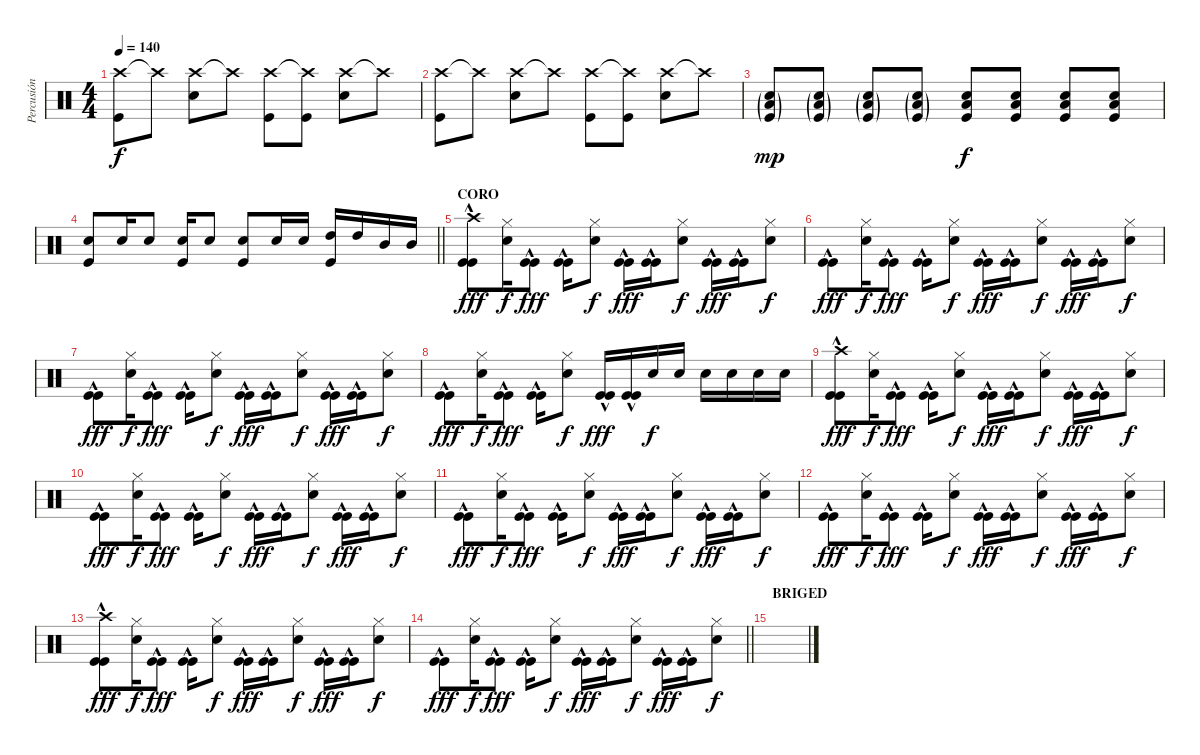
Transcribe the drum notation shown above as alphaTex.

\track ("Percusión" "Percusión") {instrument percussion}
\staff {score}
\articulation defaults
\ts (4 4)
\tempo 140
\clef neutral
\ks c
("Crash high (hit)" "Kick (hit)").8{dy f} "Crash high (hit)"{t}.8 ("Crash high (hit)" "Snare (hit) 2").8 "Crash high (hit)"{t}.8 ("Kick (hit)" "Crash high (hit)").8 ("Kick (hit)" "Crash high (hit)"{t}).8 ("Crash high (hit)" "Snare (hit) 2").8 "Crash high (hit)"{t}.8 |
("Crash high (hit)" "Kick (hit)").8 "Crash high (hit)"{t}.8 ("Crash high (hit)" "Snare (hit) 2").8 "Crash high (hit)"{t}.8 ("Kick (hit)" "Crash high (hit)").8 ("Kick (hit)" "Crash high (hit)"{t}).8 ("Crash high (hit)" "Snare (hit) 2").8 "Crash high (hit)"{t}.8 |
("Low Floor Tom (hit)"{g} "Snare (hit) 2"{g} "Kick (hit)"{g}).8{dy mp} ("Low Floor Tom (hit)"{g} "Snare (hit) 2"{g} "Kick (hit)"{g}).8 ("Kick (hit)"{g} "Low Floor Tom (hit)"{g} "Snare (hit) 2"{g}).8 ("Kick (hit)"{g} "Low Floor Tom (hit)"{g} "Snare (hit) 2"{g}).8 ("Low Floor Tom (hit)" "Snare (hit) 2" "Kick (hit)").8{dy f} ("Low Floor Tom (hit)" "Snare (hit) 2" "Kick (hit)").8 ("Kick (hit)" "Low Floor Tom (hit)" "Snare (hit) 2").8 ("Kick (hit)" "Low Floor Tom (hit)" "Snare (hit) 2").8 |
\barLineRight lightlight
("Snare (hit) 2" "Kick (hit)").8 "Snare (hit) 2".16 "Snare (hit) 2".8 ("Snare (hit) 2" "Kick (hit)").16 "Snare (hit) 2".8 ("Snare (hit) 2" "Kick (hit)").8 "Snare (hit) 2".16 "Snare (hit) 2".16 ("High Tom (hit)" "Kick (hit)").16 "High Tom (hit)".16 "Mid Tom (hit)".16 "Mid Tom (hit)".16 |
\section ("" "CORO")
("Crash high (hit)" "Kick (hit)"{hac} "Kick (hit)").8{dy fff} ("Hi-Hat (closed)" "Snare (hit) 2").16{dy f} ("Kick (hit)"{hac} "Kick (hit)").8{dy fff} ("Kick (hit)" "Kick (hit)"{hac}).16 ("Hi-Hat (closed)" "Snare (hit) 2").8{dy f} ("Kick (hit)"{hac} "Kick (hit)").16{dy fff} ("Kick (hit)"{hac} "Kick (hit)").16 ("Hi-Hat (closed)" "Snare (hit) 2").8{dy f} ("Kick (hit)"{hac} "Kick (hit)").16{dy fff} ("Kick (hit)"{hac} "Kick (hit)").16 ("Hi-Hat (closed)" "Snare (hit) 2").8{dy f} |
("Kick (hit)"{hac} "Kick (hit)").8{dy fff} ("Hi-Hat (closed)" "Snare (hit) 2").16{dy f} ("Kick (hit)"{hac} "Kick (hit)").8{dy fff} ("Kick (hit)" "Kick (hit)"{hac}).16 ("Hi-Hat (closed)" "Snare (hit) 2").8{dy f} ("Kick (hit)"{hac} "Kick (hit)").16{dy fff} ("Kick (hit)"{hac} "Kick (hit)").16 ("Hi-Hat (closed)" "Snare (hit) 2").8{dy f} ("Kick (hit)"{hac} "Kick (hit)").16{dy fff} ("Kick (hit)"{hac} "Kick (hit)").16 ("Hi-Hat (closed)" "Snare (hit) 2").8{dy f} |
("Kick (hit)"{hac} "Kick (hit)").8{dy fff} ("Hi-Hat (closed)" "Snare (hit) 2").16{dy f} ("Kick (hit)"{hac} "Kick (hit)").8{dy fff} ("Kick (hit)" "Kick (hit)"{hac}).16 ("Hi-Hat (closed)" "Snare (hit) 2").8{dy f} ("Kick (hit)"{hac} "Kick (hit)").16{dy fff} ("Kick (hit)"{hac} "Kick (hit)").16 ("Hi-Hat (closed)" "Snare (hit) 2").8{dy f} ("Kick (hit)"{hac} "Kick (hit)").16{dy fff} ("Kick (hit)"{hac} "Kick (hit)").16 ("Hi-Hat (closed)" "Snare (hit) 2").8{dy f} |
("Kick (hit)"{hac} "Kick (hit)").8{dy fff} ("Hi-Hat (closed)" "Snare (hit) 2").16{dy f} ("Kick (hit)"{hac} "Kick (hit)").8{dy fff} ("Kick (hit)" "Kick (hit)"{hac}).16 ("Hi-Hat (closed)" "Snare (hit) 2").8{dy f} ("Kick (hit)"{hac} "Kick (hit)").16{dy fff} ("Kick (hit)"{hac} "Kick (hit)").16 "Snare (hit) 2".16{dy f} "Snare (hit) 2".16 "Snare (hit) 2".16 "Snare (hit) 2".16 "Snare (hit) 2".16 "Snare (hit) 2".16 |
("Crash high (hit)" "Kick (hit)"{hac} "Kick (hit)").8{dy fff} ("Hi-Hat (closed)" "Snare (hit) 2").16{dy f} ("Kick (hit)"{hac} "Kick (hit)").8{dy fff} ("Kick (hit)" "Kick (hit)"{hac}).16 ("Hi-Hat (closed)" "Snare (hit) 2").8{dy f} ("Kick (hit)"{hac} "Kick (hit)").16{dy fff} ("Kick (hit)"{hac} "Kick (hit)").16 ("Hi-Hat (closed)" "Snare (hit) 2").8{dy f} ("Kick (hit)"{hac} "Kick (hit)").16{dy fff} ("Kick (hit)"{hac} "Kick (hit)").16 ("Hi-Hat (closed)" "Snare (hit) 2").8{dy f} |
("Kick (hit)"{hac} "Kick (hit)").8{dy fff} ("Hi-Hat (closed)" "Snare (hit) 2").16{dy f} ("Kick (hit)"{hac} "Kick (hit)").8{dy fff} ("Kick (hit)" "Kick (hit)"{hac}).16 ("Hi-Hat (closed)" "Snare (hit) 2").8{dy f} ("Kick (hit)"{hac} "Kick (hit)").16{dy fff} ("Kick (hit)"{hac} "Kick (hit)").16 ("Hi-Hat (closed)" "Snare (hit) 2").8{dy f} ("Kick (hit)"{hac} "Kick (hit)").16{dy fff} ("Kick (hit)"{hac} "Kick (hit)").16 ("Hi-Hat (closed)" "Snare (hit) 2").8{dy f} |
("Kick (hit)"{hac} "Kick (hit)").8{dy fff} ("Hi-Hat (closed)" "Snare (hit) 2").16{dy f} ("Kick (hit)"{hac} "Kick (hit)").8{dy fff} ("Kick (hit)" "Kick (hit)"{hac}).16 ("Hi-Hat (closed)" "Snare (hit) 2").8{dy f} ("Kick (hit)"{hac} "Kick (hit)").16{dy fff} ("Kick (hit)"{hac} "Kick (hit)").16 ("Hi-Hat (closed)" "Snare (hit) 2").8{dy f} ("Kick (hit)"{hac} "Kick (hit)").16{dy fff} ("Kick (hit)"{hac} "Kick (hit)").16 ("Hi-Hat (closed)" "Snare (hit) 2").8{dy f} |
("Kick (hit)"{hac} "Kick (hit)").8{dy fff} ("Hi-Hat (closed)" "Snare (hit) 2").16{dy f} ("Kick (hit)"{hac} "Kick (hit)").8{dy fff} ("Kick (hit)" "Kick (hit)"{hac}).16 ("Hi-Hat (closed)" "Snare (hit) 2").8{dy f} ("Kick (hit)"{hac} "Kick (hit)").16{dy fff} ("Kick (hit)"{hac} "Kick (hit)").16 ("Hi-Hat (closed)" "Snare (hit) 2").8{dy f} ("Kick (hit)"{hac} "Kick (hit)").16{dy fff} ("Kick (hit)"{hac} "Kick (hit)").16 ("Hi-Hat (closed)" "Snare (hit) 2").8{dy f} |
("Crash high (hit)" "Kick (hit)"{hac} "Kick (hit)").8{dy fff} ("Hi-Hat (closed)" "Snare (hit) 2").16{dy f} ("Kick (hit)"{hac} "Kick (hit)").8{dy fff} ("Kick (hit)" "Kick (hit)"{hac}).16 ("Hi-Hat (closed)" "Snare (hit) 2").8{dy f} ("Kick (hit)"{hac} "Kick (hit)").16{dy fff} ("Kick (hit)"{hac} "Kick (hit)").16 ("Hi-Hat (closed)" "Snare (hit) 2").8{dy f} ("Kick (hit)"{hac} "Kick (hit)").16{dy fff} ("Kick (hit)"{hac} "Kick (hit)").16 ("Hi-Hat (closed)" "Snare (hit) 2").8{dy f} |
\barLineRight lightlight
("Kick (hit)"{hac} "Kick (hit)").8{dy fff} ("Hi-Hat (closed)" "Snare (hit) 2").16{dy f} ("Kick (hit)"{hac} "Kick (hit)").8{dy fff} ("Kick (hit)" "Kick (hit)"{hac}).16 ("Hi-Hat (closed)" "Snare (hit) 2").8{dy f} ("Kick (hit)"{hac} "Kick (hit)").16{dy fff} ("Kick (hit)"{hac} "Kick (hit)").16 ("Hi-Hat (closed)" "Snare (hit) 2").8{dy f} ("Kick (hit)"{hac} "Kick (hit)").16{dy fff} ("Kick (hit)"{hac} "Kick (hit)").16 ("Hi-Hat (closed)" "Snare (hit) 2").8{dy f} |
\section ("" "BRIGED")
